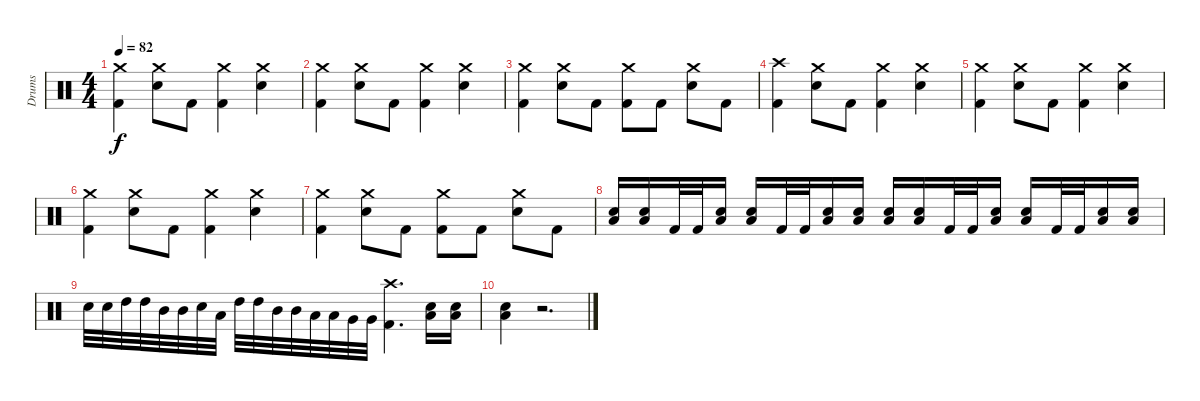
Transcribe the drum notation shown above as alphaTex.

\track ("Drums" "Drums") {instrument percussion}
\staff {score}
\articulation defaults
\ts (4 4)
\tempo 82
\clef neutral
\ks c
("Crash medium (hit)" "Kick (hit) 2").4{dy f} ("Crash medium (hit)" "Snare (hit) 2").8 "Kick (hit) 2".8 ("Crash medium (hit)" "Kick (hit) 2").4 ("Crash medium (hit)" "Snare (hit) 2").4 |
("Crash medium (hit)" "Kick (hit) 2").4 ("Crash medium (hit)" "Snare (hit) 2").8 "Kick (hit) 2".8 ("Crash medium (hit)" "Kick (hit) 2").4 ("Crash medium (hit)" "Snare (hit) 2").4 |
("Crash medium (hit)" "Kick (hit) 2").4 ("Crash medium (hit)" "Snare (hit) 2").8 "Kick (hit) 2".8 ("Crash medium (hit)" "Kick (hit) 2").8 "Kick (hit) 2".8 ("Crash medium (hit)" "Snare (hit) 2").8 "Kick (hit) 2".8 |
("Crash high (hit)" "Kick (hit) 2").4 ("Crash medium (hit)" "Snare (hit) 2").8 "Kick (hit) 2".8 ("Crash medium (hit)" "Kick (hit) 2").4 ("Crash medium (hit)" "Snare (hit) 2").4 |
("Crash medium (hit)" "Kick (hit) 2").4 ("Crash medium (hit)" "Snare (hit) 2").8 "Kick (hit) 2".8 ("Crash medium (hit)" "Kick (hit) 2").4 ("Crash medium (hit)" "Snare (hit) 2").4 |
("Crash medium (hit)" "Kick (hit) 2").4 ("Crash medium (hit)" "Snare (hit) 2").8 "Kick (hit) 2".8 ("Crash medium (hit)" "Kick (hit) 2").4 ("Crash medium (hit)" "Snare (hit) 2").4 |
("Crash medium (hit)" "Kick (hit) 2").4 ("Crash medium (hit)" "Snare (hit) 2").8 "Kick (hit) 2".8 ("Crash medium (hit)" "Kick (hit) 2").8 "Kick (hit) 2".8 ("Crash medium (hit)" "Snare (hit) 2").8 "Kick (hit) 2".8 |
("Snare (hit) 2" "Low Tom (hit)").16 ("Snare (hit) 2" "Low Tom (hit)").16 "Kick (hit) 2".32 "Kick (hit) 2".32 ("Snare (hit) 2" "Low Tom (hit)").16 ("Snare (hit) 2" "Low Tom (hit)").16 "Kick (hit) 2".32 "Kick (hit) 2".32 ("Snare (hit) 2" "Low Tom (hit)").16 ("Snare (hit) 2" "Low Tom (hit)").16 ("Snare (hit) 2" "Low Tom (hit)").16 ("Snare (hit) 2" "Low Tom (hit)").16 "Kick (hit) 2".32 "Kick (hit) 2".32 ("Snare (hit) 2" "Low Tom (hit)").16 ("Snare (hit) 2" "Low Tom (hit)").16 "Kick (hit) 2".32 "Kick (hit) 2".32 ("Snare (hit) 2" "Low Tom (hit)").16 ("Snare (hit) 2" "Low Tom (hit)").16 |
"Snare (hit) 2".32 "Snare (hit) 2".32 "High Tom (hit)".32 "High Tom (hit)".32 "Mid Tom (hit)".32 "Mid Tom (hit)".32 "Snare (hit) 2".32 "Low Tom (hit)".32 "High Tom (hit)".32 "High Tom (hit)".32 "Mid Tom (hit)".32 "Mid Tom (hit)".32 "Low Tom (hit)".32 "Low Tom (hit)".32 "Very Low Tom (hit)".32 "Very Low Tom (hit)".32 ("Crash high (hit)" "Kick (hit) 2").4{d} ("Snare (hit) 2" "Low Tom (hit)").16 ("Snare (hit) 2" "Low Tom (hit)").16 |
("Snare (hit) 2" "Low Tom (hit)").4 r.2{d}
